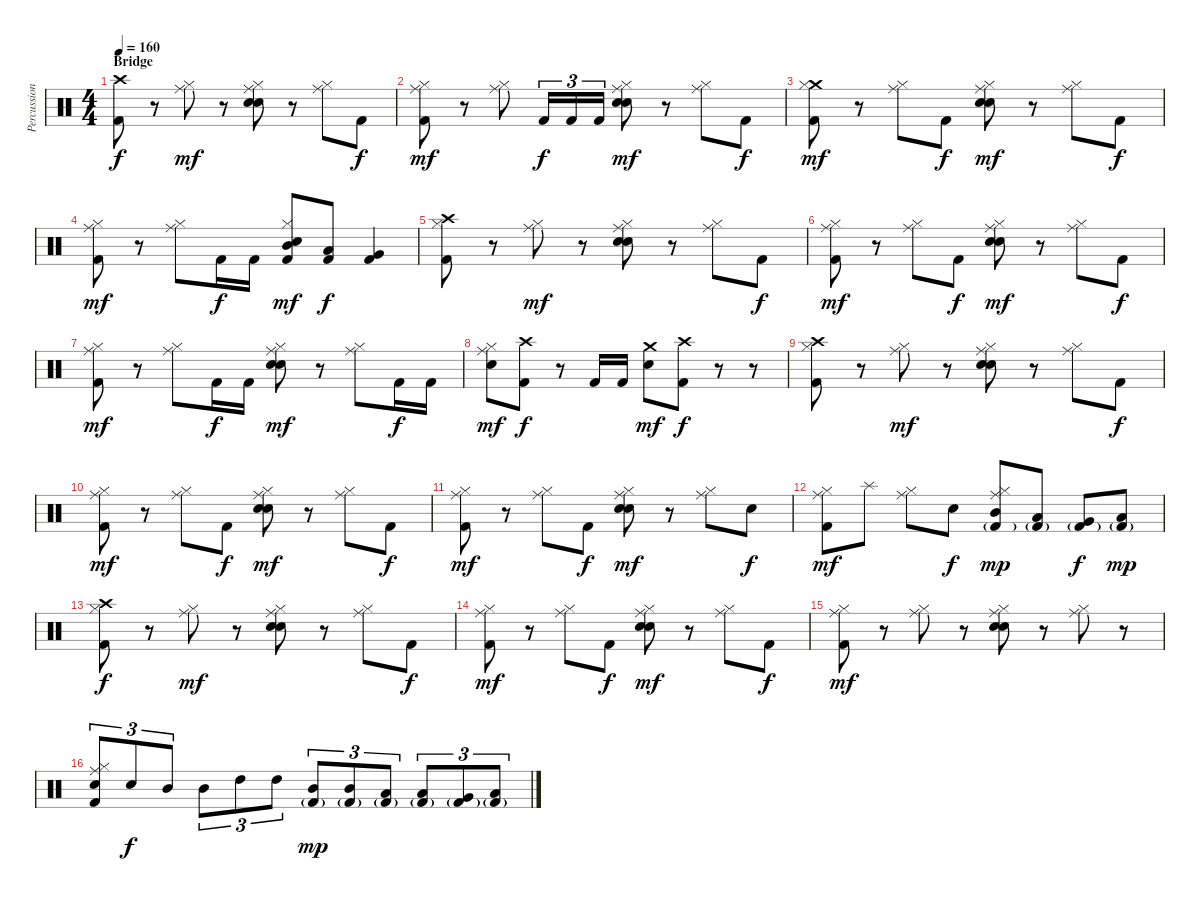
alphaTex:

\track ("Percussion" "Percussion") {instrument percussion}
\staff {score}
\articulation defaults
\ts (4 4)
\section ("" "Bridge")
\tempo 160
\clef neutral
\ks c
("Crash high (hit)" "Kick (hit) 2").8{dy f} r.8 ("Hi-Hat (closed)" "Ride (middle)").8{dy mf} r.8 ("Hi-Hat (closed)" "Ride (middle)" "Snare (hit) 2" "Electric Snare (hit)").8 r.8 ("Hi-Hat (closed)" "Ride (middle)").8 "Kick (hit) 2".8{dy f} |
("Hi-Hat (closed)" "Ride (middle)" "Kick (hit) 2").8{dy mf} r.8 ("Hi-Hat (closed)" "Ride (middle)").8 "Kick (hit) 2".16{tu (3 2) dy f} "Kick (hit) 2".16{tu (3 2)} "Kick (hit) 2".16{tu (3 2)} ("Hi-Hat (closed)" "Ride (middle)" "Snare (hit) 2" "Electric Snare (hit)").8{dy mf} r.8 ("Hi-Hat (closed)" "Ride (middle)").8 "Kick (hit) 2".8{dy f} |
("Crash medium (hit)" "Hi-Hat (closed)" "Kick (hit) 2").8{dy mf} r.8 ("Hi-Hat (closed)" "Ride (middle)").8 "Kick (hit) 2".8{dy f} ("Hi-Hat (closed)" "Ride (middle)" "Snare (hit) 2" "Electric Snare (hit)").8{dy mf} r.8 ("Hi-Hat (closed)" "Ride (middle)").8 "Kick (hit) 2".8{dy f} |
("Hi-Hat (closed)" "Ride (middle)" "Kick (hit) 2").8{dy mf} r.8 ("Hi-Hat (closed)" "Ride (middle)").8 "Kick (hit) 2".16{dy f} "Kick (hit) 2".16 ("Hi-Hat (closed)" "Mid Tom (hit)" "Electric Snare (hit)" "Kick (hit) 2").8{dy mf} ("Low Tom (hit)" "Kick (hit) 2").8{dy f} ("Very Low Tom (hit)" "Kick (hit) 2").4 |
("Crash high (hit)" "Hi-Hat (closed)" "Kick (hit) 2").8 r.8 ("Hi-Hat (closed)" "Ride (middle)").8{dy mf} r.8 ("Hi-Hat (closed)" "Ride (middle)" "Snare (hit) 2" "Electric Snare (hit)").8 r.8 ("Hi-Hat (closed)" "Ride (middle)").8 "Kick (hit) 2".8{dy f} |
("Hi-Hat (closed)" "Ride (middle)" "Kick (hit) 2").8{dy mf} r.8 ("Hi-Hat (closed)" "Ride (middle)").8 "Kick (hit) 2".8{dy f} ("Hi-Hat (closed)" "Ride (middle)" "Snare (hit) 2" "Electric Snare (hit)").8{dy mf} r.8 ("Hi-Hat (closed)" "Ride (middle)").8 "Kick (hit) 2".8{dy f} |
("Hi-Hat (closed)" "Ride (middle)" "Kick (hit) 2").8{dy mf} r.8 ("Hi-Hat (closed)" "Ride (middle)").8 "Kick (hit) 2".16{dy f} "Kick (hit) 2".16 ("Hi-Hat (closed)" "Ride (middle)" "Snare (hit) 2" "Electric Snare (hit)").8{dy mf} r.8 ("Hi-Hat (closed)" "Ride (middle)").8 "Kick (hit) 2".16{dy f} "Kick (hit) 2".16 |
("Hi-Hat (closed)" "Ride (middle)" "Electric Snare (hit)").8{dy mf} ("Crash high (hit)" "Kick (hit) 2").8{dy f} r.8 "Kick (hit) 2".16 "Kick (hit) 2".16 ("Crash medium (hit)" "Electric Snare (hit)").8{dy mf} ("Crash high (hit)" "Kick (hit) 2").8{dy f} r.8 r.8 |
("Crash high (hit)" "Hi-Hat (closed)" "Kick (hit) 2").8 r.8 ("Hi-Hat (closed)" "Ride (middle)").8{dy mf} r.8 ("Hi-Hat (closed)" "Ride (middle)" "Snare (hit) 2" "Electric Snare (hit)").8 r.8 ("Hi-Hat (closed)" "Ride (middle)").8 "Kick (hit) 2".8{dy f} |
("Hi-Hat (closed)" "Ride (middle)" "Kick (hit) 2").8{dy mf} r.8 ("Hi-Hat (closed)" "Ride (middle)").8 "Kick (hit) 2".8{dy f} ("Hi-Hat (closed)" "Ride (middle)" "Snare (hit) 2" "Electric Snare (hit)").8{dy mf} r.8 ("Hi-Hat (closed)" "Ride (middle)").8 "Kick (hit) 2".8{dy f} |
("Hi-Hat (closed)" "Ride (middle)" "Kick (hit) 2").8{dy mf} r.8 ("Hi-Hat (closed)" "Ride (middle)").8 "Kick (hit) 2".8{dy f} ("Hi-Hat (closed)" "Ride (middle)" "Snare (hit) 2" "Electric Snare (hit)").8{dy mf} r.8 ("Hi-Hat (closed)" "Ride (middle)").8 "Electric Snare (hit)".8{dy f} |
("Hi-Hat (closed)" "Ride (middle)" "Kick (hit) 2").8{dy mf} "Splash (hit)".8 ("Hi-Hat (closed)" "Ride (middle)").8 "Electric Snare (hit)".8{dy f} ("Hi-Hat (closed)" "Ride (middle)" "Mid Tom (hit)" "Kick (hit) 2"{g}).8{dy mp} ("Low Tom (hit)" "Kick (hit) 2"{g}).8 ("Very Low Tom (hit)" "Kick (hit) 2"{g}).8{dy f} ("Low Floor Tom (hit)" "Kick (hit) 2"{g}).8{dy mp} |
("Crash high (hit)" "Hi-Hat (closed)" "Kick (hit) 2").8{dy f} r.8 ("Hi-Hat (closed)" "Ride (middle)").8{dy mf} r.8 ("Hi-Hat (closed)" "Ride (middle)" "Snare (hit) 2" "Electric Snare (hit)").8 r.8 ("Hi-Hat (closed)" "Ride (middle)").8 "Kick (hit) 2".8{dy f} |
("Hi-Hat (closed)" "Ride (middle)" "Kick (hit) 2").8{dy mf} r.8 ("Hi-Hat (closed)" "Ride (middle)").8 "Kick (hit) 2".8{dy f} ("Hi-Hat (closed)" "Ride (middle)" "Snare (hit) 2" "Electric Snare (hit)").8{dy mf} r.8 ("Hi-Hat (closed)" "Ride (middle)").8 "Kick (hit) 2".8{dy f} |
("Hi-Hat (closed)" "Ride (middle)" "Kick (hit) 2").8{dy mf} r.8 ("Hi-Hat (closed)" "Ride (middle)").8 r.8 ("Hi-Hat (closed)" "Ride (middle)" "Snare (hit) 2" "Electric Snare (hit)").8 r.8 ("Hi-Hat (closed)" "Ride (middle)").8 r.8 |
("Hi-Hat (closed)" "Ride (middle)" "Electric Snare (hit)" "Kick (hit) 2").8{tu (3 2)} "Electric Snare (hit)".8{tu (3 2) dy f} "Mid Tom (hit)".8{tu (3 2)} "Mid Tom (hit)".8{tu (3 2)} "High Tom (hit)".8{tu (3 2)} "High Tom (hit)".8{tu (3 2)} ("Mid Tom (hit)" "Kick (hit) 2"{g}).8{tu (3 2) dy mp} ("Mid Tom (hit)" "Kick (hit) 2"{g}).8{tu (3 2)} ("Low Tom (hit)" "Kick (hit) 2"{g}).8{tu (3 2)} ("Low Tom (hit)" "Kick (hit) 2"{g}).8{tu (3 2)} ("Very Low Tom (hit)" "Kick (hit) 2"{g}).8{tu (3 2)} ("Low Floor Tom (hit)" "Kick (hit) 2"{g}).8{tu (3 2)}
